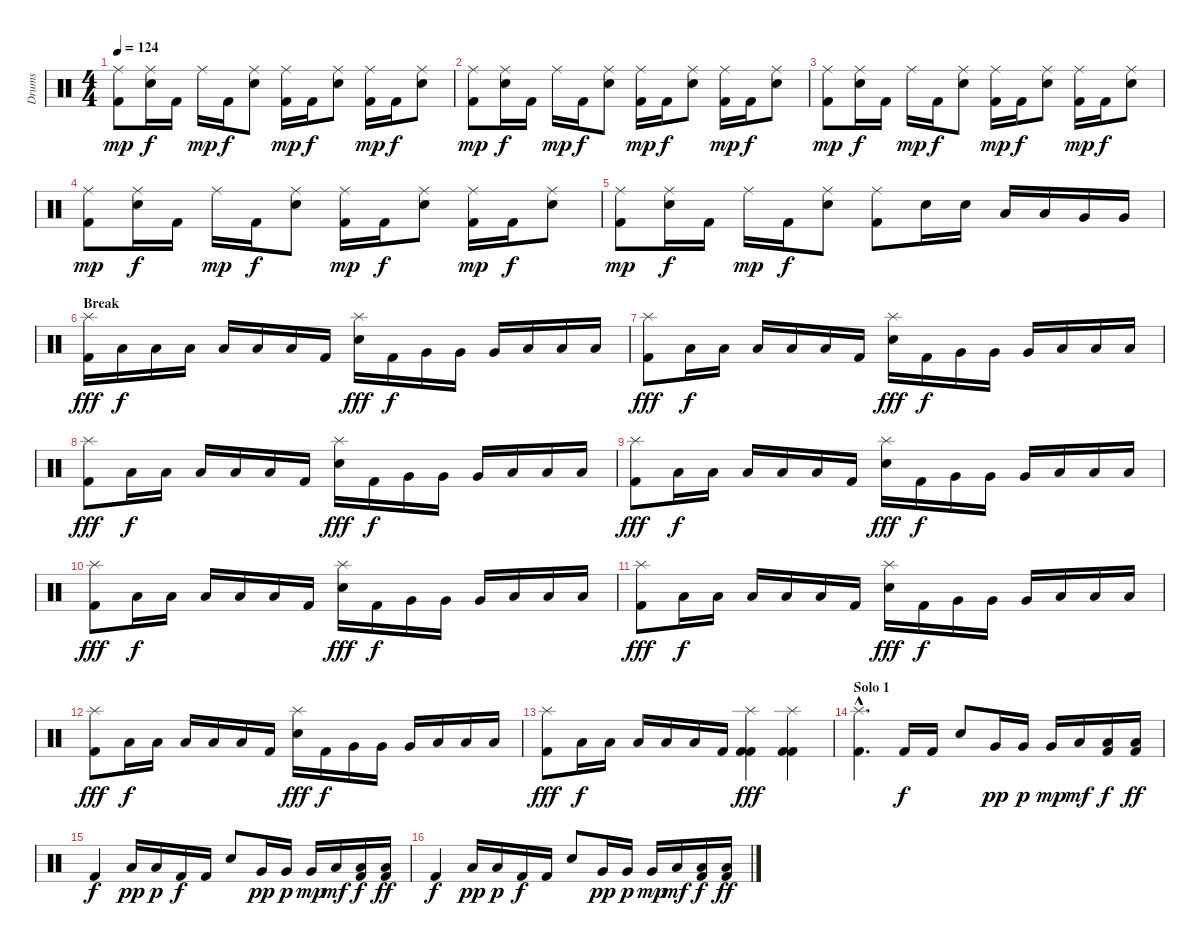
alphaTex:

\track ("Drums" "Drums") {instrument percussion}
\staff {score}
\articulation defaults
\ts (4 4)
\tempo 124
\clef neutral
\ks c
("Ride (middle)" "Kick (hit) 2").8{dy mp} ("Ride (middle)" "Snare (hit) 2").16{dy f} "Kick (hit) 2".16 "Ride (middle)".16{dy mp} "Kick (hit) 2".16{dy f} ("Ride (middle)" "Snare (hit) 2").8 ("Ride (middle)" "Kick (hit) 2").16{dy mp} "Kick (hit) 2".16{dy f} ("Ride (middle)" "Snare (hit) 2").8 ("Ride (middle)" "Kick (hit) 2").16{dy mp} "Kick (hit) 2".16{dy f} ("Ride (middle)" "Snare (hit) 2").8 |
("Ride (middle)" "Kick (hit) 2").8{dy mp} ("Ride (middle)" "Snare (hit) 2").16{dy f} "Kick (hit) 2".16 "Ride (middle)".16{dy mp} "Kick (hit) 2".16{dy f} ("Ride (middle)" "Snare (hit) 2").8 ("Ride (middle)" "Kick (hit) 2").16{dy mp} "Kick (hit) 2".16{dy f} ("Ride (middle)" "Snare (hit) 2").8 ("Ride (middle)" "Kick (hit) 2").16{dy mp} "Kick (hit) 2".16{dy f} ("Ride (middle)" "Snare (hit) 2").8 |
("Ride (middle)" "Kick (hit) 2").8{dy mp} ("Ride (middle)" "Snare (hit) 2").16{dy f} "Kick (hit) 2".16 "Ride (middle)".16{dy mp} "Kick (hit) 2".16{dy f} ("Ride (middle)" "Snare (hit) 2").8 ("Ride (middle)" "Kick (hit) 2").16{dy mp} "Kick (hit) 2".16{dy f} ("Ride (middle)" "Snare (hit) 2").8 ("Ride (middle)" "Kick (hit) 2").16{dy mp} "Kick (hit) 2".16{dy f} ("Ride (middle)" "Snare (hit) 2").8 |
("Ride (middle)" "Kick (hit) 2").8{dy mp} ("Ride (middle)" "Snare (hit) 2").16{dy f} "Kick (hit) 2".16 "Ride (middle)".16{dy mp} "Kick (hit) 2".16{dy f} ("Ride (middle)" "Snare (hit) 2").8 ("Ride (middle)" "Kick (hit) 2").16{dy mp} "Kick (hit) 2".16{dy f} ("Ride (middle)" "Snare (hit) 2").8 ("Ride (middle)" "Kick (hit) 2").16{dy mp} "Kick (hit) 2".16{dy f} ("Ride (middle)" "Snare (hit) 2").8 |
("Ride (middle)" "Kick (hit) 2").8{dy mp} ("Ride (middle)" "Snare (hit) 2").16{dy f} "Kick (hit) 2".16 "Ride (middle)".16{dy mp} "Kick (hit) 2".16{dy f} ("Ride (middle)" "Snare (hit) 2").8 ("Ride (middle)" "Kick (hit) 2").8 "Snare (hit) 2".16 "Snare (hit) 2".16 "Low Tom (hit)".16 "Low Tom (hit)".16 "Very Low Tom (hit)".16 "Very Low Tom (hit)".16 |
\section ("" "Break")
("Splash (hit)" "Kick (hit) 2").16{dy fff} "Low Floor Tom (hit)".16{dy f} "Low Floor Tom (hit)".16 "Low Floor Tom (hit)".16 "Low Floor Tom (hit)".16 "Low Floor Tom (hit)".16 "Low Floor Tom (hit)".16 "Kick (hit) 2".16 ("Splash (hit)" "Snare (hit) 2").16{dy fff} "Kick (hit) 2".16{dy f} "Very Low Tom (hit)".16 "Very Low Tom (hit)".16 "Very Low Tom (hit)".16 "Low Floor Tom (hit)".16 "Low Floor Tom (hit)".16 "Low Floor Tom (hit)".16 |
("Splash (hit)" "Kick (hit) 2").8{dy fff} "Low Floor Tom (hit)".16{dy f} "Low Floor Tom (hit)".16 "Low Floor Tom (hit)".16 "Low Floor Tom (hit)".16 "Low Floor Tom (hit)".16 "Kick (hit) 2".16 ("Splash (hit)" "Snare (hit) 2").16{dy fff} "Kick (hit) 2".16{dy f} "Very Low Tom (hit)".16 "Very Low Tom (hit)".16 "Very Low Tom (hit)".16 "Low Floor Tom (hit)".16 "Low Floor Tom (hit)".16 "Low Floor Tom (hit)".16 |
("Splash (hit)" "Kick (hit) 2").8{dy fff} "Low Floor Tom (hit)".16{dy f} "Low Floor Tom (hit)".16 "Low Floor Tom (hit)".16 "Low Floor Tom (hit)".16 "Low Floor Tom (hit)".16 "Kick (hit) 2".16 ("Splash (hit)" "Snare (hit) 2").16{dy fff} "Kick (hit) 2".16{dy f} "Very Low Tom (hit)".16 "Very Low Tom (hit)".16 "Very Low Tom (hit)".16 "Low Floor Tom (hit)".16 "Low Floor Tom (hit)".16 "Low Floor Tom (hit)".16 |
("Splash (hit)" "Kick (hit) 2").8{dy fff} "Low Floor Tom (hit)".16{dy f} "Low Floor Tom (hit)".16 "Low Floor Tom (hit)".16 "Low Floor Tom (hit)".16 "Low Floor Tom (hit)".16 "Kick (hit) 2".16 ("Splash (hit)" "Snare (hit) 2").16{dy fff} "Kick (hit) 2".16{dy f} "Very Low Tom (hit)".16 "Very Low Tom (hit)".16 "Very Low Tom (hit)".16 "Low Floor Tom (hit)".16 "Low Floor Tom (hit)".16 "Low Floor Tom (hit)".16 |
("Splash (hit)" "Kick (hit) 2").8{dy fff} "Low Floor Tom (hit)".16{dy f} "Low Floor Tom (hit)".16 "Low Floor Tom (hit)".16 "Low Floor Tom (hit)".16 "Low Floor Tom (hit)".16 "Kick (hit) 2".16 ("Splash (hit)" "Snare (hit) 2").16{dy fff} "Kick (hit) 2".16{dy f} "Very Low Tom (hit)".16 "Very Low Tom (hit)".16 "Very Low Tom (hit)".16 "Low Floor Tom (hit)".16 "Low Floor Tom (hit)".16 "Low Floor Tom (hit)".16 |
("Splash (hit)" "Kick (hit) 2").8{dy fff} "Low Floor Tom (hit)".16{dy f} "Low Floor Tom (hit)".16 "Low Floor Tom (hit)".16 "Low Floor Tom (hit)".16 "Low Floor Tom (hit)".16 "Kick (hit) 2".16 ("Splash (hit)" "Snare (hit) 2").16{dy fff} "Kick (hit) 2".16{dy f} "Very Low Tom (hit)".16 "Very Low Tom (hit)".16 "Very Low Tom (hit)".16 "Low Floor Tom (hit)".16 "Low Floor Tom (hit)".16 "Low Floor Tom (hit)".16 |
("Splash (hit)" "Kick (hit) 2").8{dy fff} "Low Floor Tom (hit)".16{dy f} "Low Floor Tom (hit)".16 "Low Floor Tom (hit)".16 "Low Floor Tom (hit)".16 "Low Floor Tom (hit)".16 "Kick (hit) 2".16 ("Splash (hit)" "Snare (hit) 2").16{dy fff} "Kick (hit) 2".16{dy f} "Very Low Tom (hit)".16 "Very Low Tom (hit)".16 "Very Low Tom (hit)".16 "Low Floor Tom (hit)".16 "Low Floor Tom (hit)".16 "Low Floor Tom (hit)".16 |
("Splash (hit)" "Kick (hit) 2").8{dy fff} "Low Floor Tom (hit)".16{dy f} "Low Floor Tom (hit)".16 "Low Floor Tom (hit)".16 "Low Floor Tom (hit)".16 "Low Floor Tom (hit)".16 "Kick (hit) 2".16 ("Splash (hit)" "Kick (hit) 2" "Kick (hit) 2").4{dy fff} ("Splash (hit)" "Kick (hit) 2" "Kick (hit) 2").4 |
\section ("" "Solo 1")
("Splash (hit)"{hac} "Kick (hit) 2"{hac}).4{d} "Kick (hit) 2".16{dy f} "Kick (hit) 2".16 "Snare (hit) 2".8 "Very Low Tom (hit)".16{dy pp} "Very Low Tom (hit)".16{dy p} "Very Low Tom (hit)".16{dy mp} "Low Floor Tom (hit)".16{dy mf} ("Low Floor Tom (hit)" "Kick (hit) 2").16{dy f} ("Low Floor Tom (hit)" "Kick (hit) 2").16{dy ff} |
"Kick (hit) 2".4{dy f} "Low Floor Tom (hit)".16{dy pp} "Low Floor Tom (hit)".16{dy p} "Kick (hit) 2".16{dy f} "Kick (hit) 2".16 "Snare (hit) 2".8 "Very Low Tom (hit)".16{dy pp} "Very Low Tom (hit)".16{dy p} "Very Low Tom (hit)".16{dy mp} "Low Floor Tom (hit)".16{dy mf} ("Low Floor Tom (hit)" "Kick (hit) 2").16{dy f} ("Low Floor Tom (hit)" "Kick (hit) 2").16{dy ff} |
"Kick (hit) 2".4{dy f} "Low Floor Tom (hit)".16{dy pp} "Low Floor Tom (hit)".16{dy p} "Kick (hit) 2".16{dy f} "Kick (hit) 2".16 "Snare (hit) 2".8 "Very Low Tom (hit)".16{dy pp} "Very Low Tom (hit)".16{dy p} "Very Low Tom (hit)".16{dy mp} "Low Floor Tom (hit)".16{dy mf} ("Low Floor Tom (hit)" "Kick (hit) 2").16{dy f} ("Low Floor Tom (hit)" "Kick (hit) 2").16{dy ff}
